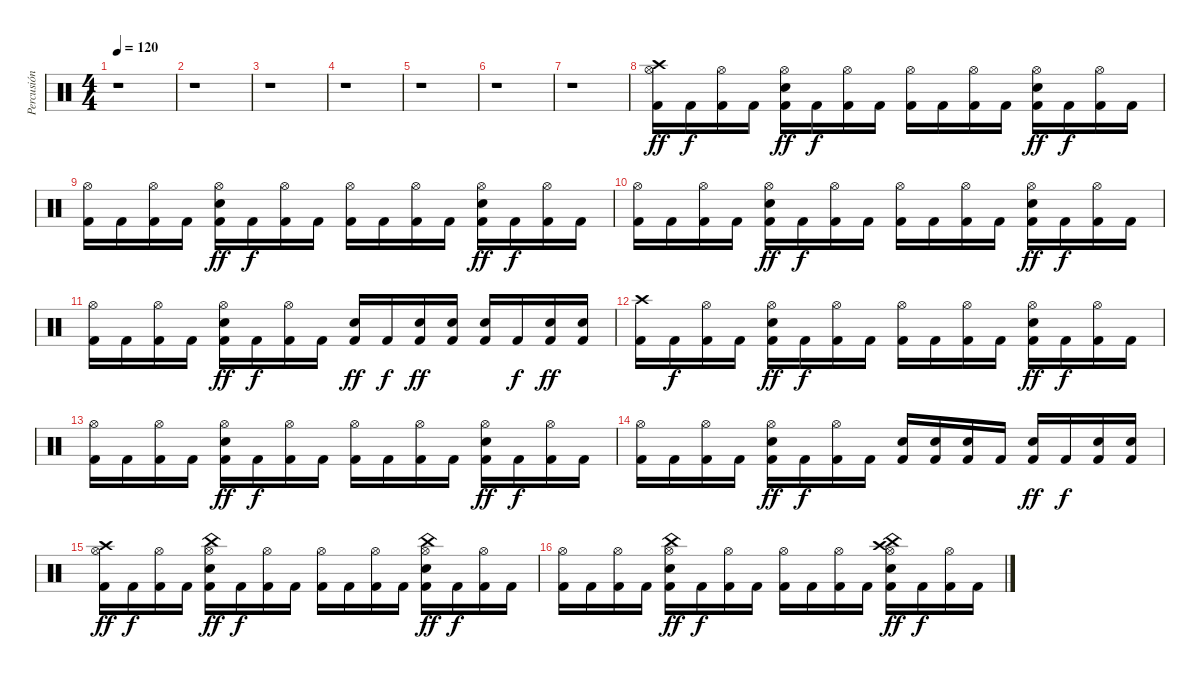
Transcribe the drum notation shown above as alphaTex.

\track ("Percusión" "Percusión") {instrument percussion}
\staff {score}
\articulation defaults
\ts (4 4)
\section ("" "")
\tempo 120
\clef neutral
\ks c
r.1{dy ff} |
r.1 |
r.1 |
r.1 |
r.1 |
r.1 |
r.1 |
("Hi-Hat (open)" "Crash high (hit)" "Kick (hit) 2").16 "Kick (hit) 2".16{dy f} ("Hi-Hat (open)" "Kick (hit) 2").16 "Kick (hit) 2".16 ("Hi-Hat (open)" "Electric Snare (hit)" "Kick (hit) 2").16{dy ff} "Kick (hit) 2".16{dy f} ("Hi-Hat (open)" "Kick (hit) 2").16 "Kick (hit) 2".16 ("Hi-Hat (open)" "Kick (hit) 2").16 "Kick (hit) 2".16 ("Hi-Hat (open)" "Kick (hit) 2").16 "Kick (hit) 2".16 ("Hi-Hat (open)" "Electric Snare (hit)" "Kick (hit) 2").16{dy ff} "Kick (hit) 2".16{dy f} ("Hi-Hat (open)" "Kick (hit) 2").16 "Kick (hit) 2".16 |
("Hi-Hat (open)" "Kick (hit) 2").16 "Kick (hit) 2".16 ("Hi-Hat (open)" "Kick (hit) 2").16 "Kick (hit) 2".16 ("Hi-Hat (open)" "Electric Snare (hit)" "Kick (hit) 2").16{dy ff} "Kick (hit) 2".16{dy f} ("Hi-Hat (open)" "Kick (hit) 2").16 "Kick (hit) 2".16 ("Hi-Hat (open)" "Kick (hit) 2").16 "Kick (hit) 2".16 ("Hi-Hat (open)" "Kick (hit) 2").16 "Kick (hit) 2".16 ("Hi-Hat (open)" "Electric Snare (hit)" "Kick (hit) 2").16{dy ff} "Kick (hit) 2".16{dy f} ("Hi-Hat (open)" "Kick (hit) 2").16 "Kick (hit) 2".16 |
("Hi-Hat (open)" "Kick (hit) 2").16 "Kick (hit) 2".16 ("Hi-Hat (open)" "Kick (hit) 2").16 "Kick (hit) 2".16 ("Hi-Hat (open)" "Electric Snare (hit)" "Kick (hit) 2").16{dy ff} "Kick (hit) 2".16{dy f} ("Hi-Hat (open)" "Kick (hit) 2").16 "Kick (hit) 2".16 ("Hi-Hat (open)" "Kick (hit) 2").16 "Kick (hit) 2".16 ("Hi-Hat (open)" "Kick (hit) 2").16 "Kick (hit) 2".16 ("Hi-Hat (open)" "Electric Snare (hit)" "Kick (hit) 2").16{dy ff} "Kick (hit) 2".16{dy f} ("Hi-Hat (open)" "Kick (hit) 2").16 "Kick (hit) 2".16 |
("Hi-Hat (open)" "Kick (hit) 2").16 "Kick (hit) 2".16 ("Hi-Hat (open)" "Kick (hit) 2").16 "Kick (hit) 2".16 ("Hi-Hat (open)" "Electric Snare (hit)" "Kick (hit) 2").16{dy ff} "Kick (hit) 2".16{dy f} ("Hi-Hat (open)" "Kick (hit) 2").16 "Kick (hit) 2".16 ("Electric Snare (hit)" "Kick (hit) 2").16{dy ff} "Kick (hit) 2".16{dy f} ("Electric Snare (hit)" "Kick (hit) 2").16{dy ff} ("Electric Snare (hit)" "Kick (hit) 2").16 ("Electric Snare (hit)" "Kick (hit) 2").16 "Kick (hit) 2".16{dy f} ("Electric Snare (hit)" "Kick (hit) 2").16{dy ff} ("Electric Snare (hit)" "Kick (hit) 2").16 |
("Crash high (hit)" "Kick (hit) 2").16 "Kick (hit) 2".16{dy f} ("Hi-Hat (open)" "Kick (hit) 2").16 "Kick (hit) 2".16 ("Hi-Hat (open)" "Electric Snare (hit)" "Kick (hit) 2").16{dy ff} "Kick (hit) 2".16{dy f} ("Hi-Hat (open)" "Kick (hit) 2").16 "Kick (hit) 2".16 ("Hi-Hat (open)" "Kick (hit) 2").16 "Kick (hit) 2".16 ("Hi-Hat (open)" "Kick (hit) 2").16 "Kick (hit) 2".16 ("Hi-Hat (open)" "Electric Snare (hit)" "Kick (hit) 2").16{dy ff} "Kick (hit) 2".16{dy f} ("Hi-Hat (open)" "Kick (hit) 2").16 "Kick (hit) 2".16 |
("Hi-Hat (open)" "Kick (hit) 2").16 "Kick (hit) 2".16 ("Hi-Hat (open)" "Kick (hit) 2").16 "Kick (hit) 2".16 ("Hi-Hat (open)" "Electric Snare (hit)" "Kick (hit) 2").16{dy ff} "Kick (hit) 2".16{dy f} ("Hi-Hat (open)" "Kick (hit) 2").16 "Kick (hit) 2".16 ("Hi-Hat (open)" "Kick (hit) 2").16 "Kick (hit) 2".16 ("Hi-Hat (open)" "Kick (hit) 2").16 "Kick (hit) 2".16 ("Hi-Hat (open)" "Electric Snare (hit)" "Kick (hit) 2").16{dy ff} "Kick (hit) 2".16{dy f} ("Hi-Hat (open)" "Kick (hit) 2").16 "Kick (hit) 2".16 |
("Hi-Hat (open)" "Kick (hit) 2").16 "Kick (hit) 2".16 ("Hi-Hat (open)" "Kick (hit) 2").16 "Kick (hit) 2".16 ("Hi-Hat (open)" "Electric Snare (hit)" "Kick (hit) 2").16{dy ff} "Kick (hit) 2".16{dy f} ("Hi-Hat (open)" "Kick (hit) 2").16 "Kick (hit) 2".16 ("Electric Snare (hit)" "Kick (hit) 2").16 ("Electric Snare (hit)" "Kick (hit) 2").16 ("Electric Snare (hit)" "Kick (hit) 2").16 "Kick (hit) 2".16 ("Electric Snare (hit)" "Kick (hit) 2").16{dy ff} "Kick (hit) 2".16{dy f} ("Electric Snare (hit)" "Kick (hit) 2").16 ("Electric Snare (hit)" "Kick (hit) 2").16 |
("Hi-Hat (open)" "Crash high (hit)" "Kick (hit) 2").16{dy ff} "Kick (hit) 2".16{dy f} ("Hi-Hat (open)" "Kick (hit) 2").16 "Kick (hit) 2".16 ("Hi-Hat (open)" "Electric Snare (hit)" "China (hit)" "Kick (hit) 2").16{dy ff} "Kick (hit) 2".16{dy f} ("Hi-Hat (open)" "Kick (hit) 2").16 "Kick (hit) 2".16 ("Hi-Hat (open)" "Kick (hit) 2").16 "Kick (hit) 2".16 ("Hi-Hat (open)" "Kick (hit) 2").16 "Kick (hit) 2".16 ("Hi-Hat (open)" "Electric Snare (hit)" "China (hit)" "Kick (hit) 2").16{dy ff} "Kick (hit) 2".16{dy f} ("Hi-Hat (open)" "Kick (hit) 2").16 "Kick (hit) 2".16 |
("Hi-Hat (open)" "Kick (hit) 2").16 "Kick (hit) 2".16 ("Hi-Hat (open)" "Kick (hit) 2").16 "Kick (hit) 2".16 ("Hi-Hat (open)" "Electric Snare (hit)" "China (hit)" "Kick (hit) 2").16{dy ff} "Kick (hit) 2".16{dy f} ("Hi-Hat (open)" "Kick (hit) 2").16 "Kick (hit) 2".16 ("Hi-Hat (open)" "Kick (hit) 2").16 "Kick (hit) 2".16 ("Hi-Hat (open)" "Kick (hit) 2").16 "Kick (hit) 2".16 ("Hi-Hat (open)" "Electric Snare (hit)" "China (hit)" "Kick (hit) 2" "Crash high (hit)").16{dy ff} "Kick (hit) 2".16{dy f} ("Hi-Hat (open)" "Kick (hit) 2").16 "Kick (hit) 2".16
